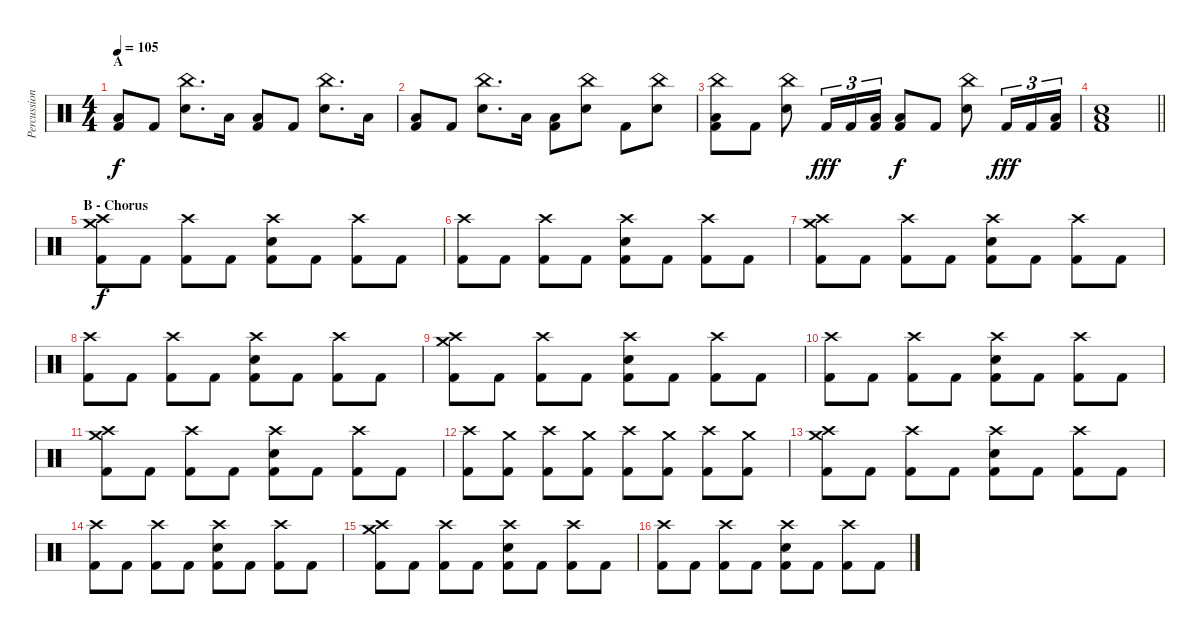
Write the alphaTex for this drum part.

\track ("Percussions" "Percussion") {instrument percussion}
\staff {score}
\articulation defaults
\ts (4 4)
\section ("" "A")
\tempo 105
\clef neutral
\ks c
("Low Tom (hit)" "Kick (hit) 2").8{dy f} "Kick (hit) 2".8 ("China (hit)" "Snare (hit) 2").8{d} "Low Tom (hit)".16 ("Low Tom (hit)" "Kick (hit) 2").8 "Kick (hit) 2".8 ("China (hit)" "Snare (hit) 2").8{d} "Low Tom (hit)".16 |
("Low Tom (hit)" "Kick (hit) 2").8 "Kick (hit) 2".8 ("China (hit)" "Snare (hit) 2").8{d} "Low Tom (hit)".16 ("Low Tom (hit)" "Kick (hit) 2").8 ("China (hit)" "Snare (hit) 2").8 "Kick (hit) 2".8 ("China (hit)" "Snare (hit) 2").8 |
("China (hit)" "Low Tom (hit)" "Kick (hit) 2").8 "Kick (hit) 2".8 ("China (hit)" "Snare (hit) 2").8 "Kick (hit) 2".16{tu (3 2) dy fff} "Kick (hit) 2".16{tu (3 2)} ("Low Tom (hit)" "Kick (hit) 2").16{tu (3 2)} ("Low Tom (hit)" "Kick (hit) 2").8{dy f} "Kick (hit) 2".8 ("China (hit)" "Snare (hit) 2").8 "Kick (hit) 2".16{tu (3 2) dy fff} "Kick (hit) 2".16{tu (3 2)} ("Low Tom (hit)" "Kick (hit) 2").16{tu (3 2)} |
\barLineRight lightlight
("Low Tom (hit)" "Snare (hit) 2" "Kick (hit) 2").1 |
\section ("" "B - Chorus")
("Crash medium (hit)" "Crash high (hit)" "Kick (hit) 2").8{dy f} "Kick (hit) 2".8 ("Crash high (hit)" "Kick (hit) 2").8 "Kick (hit) 2".8 ("Crash high (hit)" "Snare (hit) 2" "Kick (hit) 2").8 "Kick (hit) 2".8 ("Crash high (hit)" "Kick (hit) 2").8 "Kick (hit) 2".8 |
("Crash high (hit)" "Kick (hit) 2").8 "Kick (hit) 2".8 ("Crash high (hit)" "Kick (hit) 2").8 "Kick (hit) 2".8 ("Crash high (hit)" "Snare (hit) 2" "Kick (hit) 2").8 "Kick (hit) 2".8 ("Crash high (hit)" "Kick (hit) 2").8 "Kick (hit) 2".8 |
("Crash medium (hit)" "Crash high (hit)" "Kick (hit) 2").8 "Kick (hit) 2".8 ("Crash high (hit)" "Kick (hit) 2").8 "Kick (hit) 2".8 ("Crash high (hit)" "Snare (hit) 2" "Kick (hit) 2").8 "Kick (hit) 2".8 ("Crash high (hit)" "Kick (hit) 2").8 "Kick (hit) 2".8 |
("Crash high (hit)" "Kick (hit) 2").8 "Kick (hit) 2".8 ("Crash high (hit)" "Kick (hit) 2").8 "Kick (hit) 2".8 ("Crash high (hit)" "Snare (hit) 2" "Kick (hit) 2").8 "Kick (hit) 2".8 ("Crash high (hit)" "Kick (hit) 2").8 "Kick (hit) 2".8 |
("Crash medium (hit)" "Crash high (hit)" "Kick (hit) 2").8 "Kick (hit) 2".8 ("Crash high (hit)" "Kick (hit) 2").8 "Kick (hit) 2".8 ("Crash high (hit)" "Snare (hit) 2" "Kick (hit) 2").8 "Kick (hit) 2".8 ("Crash high (hit)" "Kick (hit) 2").8 "Kick (hit) 2".8 |
("Crash high (hit)" "Kick (hit) 2").8 "Kick (hit) 2".8 ("Crash high (hit)" "Kick (hit) 2").8 "Kick (hit) 2".8 ("Crash high (hit)" "Snare (hit) 2" "Kick (hit) 2").8 "Kick (hit) 2".8 ("Crash high (hit)" "Kick (hit) 2").8 "Kick (hit) 2".8 |
("Crash medium (hit)" "Crash high (hit)" "Kick (hit) 2").8 "Kick (hit) 2".8 ("Crash high (hit)" "Kick (hit) 2").8 "Kick (hit) 2".8 ("Crash high (hit)" "Snare (hit) 2" "Kick (hit) 2").8 "Kick (hit) 2".8 ("Crash high (hit)" "Kick (hit) 2").8 "Kick (hit) 2".8 |
("Crash high (hit)" "Kick (hit) 2").8 ("Crash medium (hit)" "Kick (hit) 2").8 ("Crash high (hit)" "Kick (hit) 2").8 ("Crash medium (hit)" "Kick (hit) 2").8 ("Crash high (hit)" "Kick (hit) 2").8 ("Crash medium (hit)" "Kick (hit) 2").8 ("Crash high (hit)" "Kick (hit) 2").8 ("Crash medium (hit)" "Kick (hit) 2").8 |
("Crash medium (hit)" "Crash high (hit)" "Kick (hit) 2").8 "Kick (hit) 2".8 ("Crash high (hit)" "Kick (hit) 2").8 "Kick (hit) 2".8 ("Crash high (hit)" "Snare (hit) 2" "Kick (hit) 2").8 "Kick (hit) 2".8 ("Crash high (hit)" "Kick (hit) 2").8 "Kick (hit) 2".8 |
("Crash high (hit)" "Kick (hit) 2").8 "Kick (hit) 2".8 ("Crash high (hit)" "Kick (hit) 2").8 "Kick (hit) 2".8 ("Crash high (hit)" "Snare (hit) 2" "Kick (hit) 2").8 "Kick (hit) 2".8 ("Crash high (hit)" "Kick (hit) 2").8 "Kick (hit) 2".8 |
("Crash medium (hit)" "Crash high (hit)" "Kick (hit) 2").8 "Kick (hit) 2".8 ("Crash high (hit)" "Kick (hit) 2").8 "Kick (hit) 2".8 ("Crash high (hit)" "Snare (hit) 2" "Kick (hit) 2").8 "Kick (hit) 2".8 ("Crash high (hit)" "Kick (hit) 2").8 "Kick (hit) 2".8 |
("Crash high (hit)" "Kick (hit) 2").8 "Kick (hit) 2".8 ("Crash high (hit)" "Kick (hit) 2").8 "Kick (hit) 2".8 ("Crash high (hit)" "Snare (hit) 2" "Kick (hit) 2").8 "Kick (hit) 2".8 ("Crash high (hit)" "Kick (hit) 2").8 "Kick (hit) 2".8
